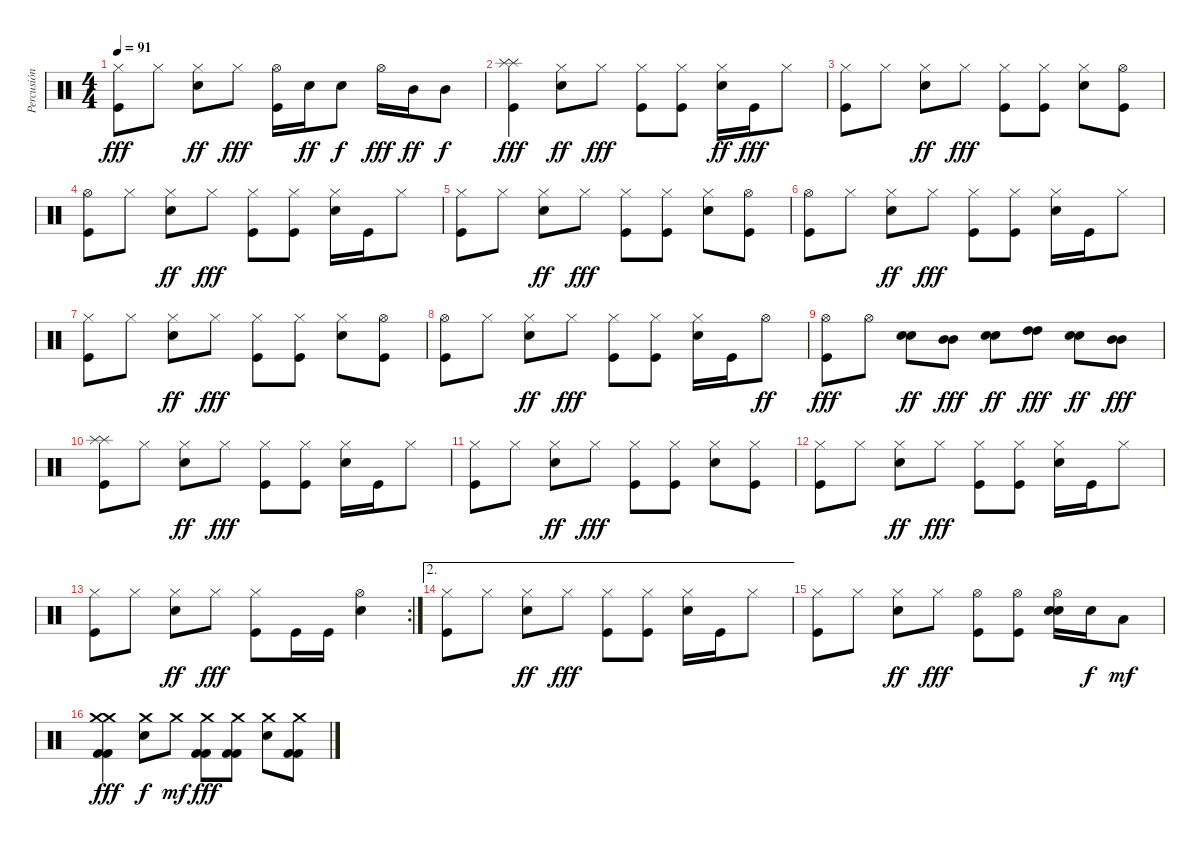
\track ("Percusión" "Percusión") {instrument percussion}
\staff {score}
\articulation defaults
\ts (4 4)
\tempo 91
\clef neutral
\ks c
("Hi-Hat (closed)" "Kick (hit)").8{dy fff} "Hi-Hat (closed)".8 ("Hi-Hat (closed)" "Electric Snare (hit)").8{dy ff} "Hi-Hat (closed)".8{dy fff} ("Hi-Hat (open)" "Kick (hit)").16 "Electric Snare (hit)".16{dy ff} "Electric Snare (hit)".8{dy f} "Hi-Hat (open)".16{dy fff} "Mid Tom (hit)".16{dy ff} "Mid Tom (hit)".8{dy f} |
("Splash (hit)" "Splash (hit)" "Kick (hit)").4{dy fff} ("Hi-Hat (closed)" "Electric Snare (hit)").8{dy ff} "Hi-Hat (closed)".8{dy fff} ("Hi-Hat (closed)" "Kick (hit)").8 ("Hi-Hat (closed)" "Kick (hit)").8 ("Hi-Hat (closed)" "Electric Snare (hit)").16{dy ff} "Kick (hit)".16{dy fff} "Hi-Hat (closed)".8 |
("Hi-Hat (closed)" "Kick (hit)").8 "Hi-Hat (closed)".8 ("Hi-Hat (closed)" "Electric Snare (hit)").8{dy ff} "Hi-Hat (closed)".8{dy fff} ("Hi-Hat (closed)" "Kick (hit)").8 ("Hi-Hat (closed)" "Kick (hit)").8 ("Hi-Hat (closed)" "Electric Snare (hit)").8 ("Hi-Hat (open)" "Kick (hit)").8 |
("Hi-Hat (open)" "Kick (hit)").8 "Hi-Hat (closed)".8 ("Hi-Hat (closed)" "Electric Snare (hit)").8{dy ff} "Hi-Hat (closed)".8{dy fff} ("Hi-Hat (closed)" "Kick (hit)").8 ("Hi-Hat (closed)" "Kick (hit)").8 ("Hi-Hat (closed)" "Electric Snare (hit)").16 "Kick (hit)".16 "Hi-Hat (closed)".8 |
("Hi-Hat (closed)" "Kick (hit)").8 "Hi-Hat (closed)".8 ("Hi-Hat (closed)" "Electric Snare (hit)").8{dy ff} "Hi-Hat (closed)".8{dy fff} ("Hi-Hat (closed)" "Kick (hit)").8 ("Hi-Hat (closed)" "Kick (hit)").8 ("Hi-Hat (closed)" "Electric Snare (hit)").8 ("Hi-Hat (open)" "Kick (hit)").8 |
("Hi-Hat (open)" "Kick (hit)").8 "Hi-Hat (closed)".8 ("Hi-Hat (closed)" "Electric Snare (hit)").8{dy ff} "Hi-Hat (closed)".8{dy fff} ("Hi-Hat (closed)" "Kick (hit)").8 ("Hi-Hat (closed)" "Kick (hit)").8 ("Hi-Hat (closed)" "Electric Snare (hit)").16 "Kick (hit)".16 "Hi-Hat (closed)".8 |
("Hi-Hat (closed)" "Kick (hit)").8 "Hi-Hat (closed)".8 ("Hi-Hat (closed)" "Electric Snare (hit)").8{dy ff} "Hi-Hat (closed)".8{dy fff} ("Hi-Hat (closed)" "Kick (hit)").8 ("Hi-Hat (closed)" "Kick (hit)").8 ("Hi-Hat (closed)" "Electric Snare (hit)").8 ("Hi-Hat (open)" "Kick (hit)").8 |
("Hi-Hat (open)" "Kick (hit)").8 "Hi-Hat (closed)".8 ("Hi-Hat (closed)" "Electric Snare (hit)").8{dy ff} "Hi-Hat (closed)".8{dy fff} ("Hi-Hat (closed)" "Kick (hit)").8 ("Hi-Hat (closed)" "Kick (hit)").8 ("Hi-Hat (closed)" "Electric Snare (hit)").16 "Kick (hit)".16 "Hi-Hat (open)".8{dy ff} |
("Hi-Hat (open)" "Kick (hit)").8{dy fff} "Hi-Hat (open)".8 ("Electric Snare (hit)" "Electric Snare (hit)").8{dy ff} ("Mid Tom (hit)" "Mid Tom (hit)").8{dy fff} ("Electric Snare (hit)" "Electric Snare (hit)").8{dy ff} ("High Tom (hit)" "High Tom (hit)").8{dy fff} ("Electric Snare (hit)" "Electric Snare (hit)").8{dy ff} ("Mid Tom (hit)" "Mid Tom (hit)").8{dy fff} |
("Splash (hit)" "Splash (hit)" "Kick (hit)").8 "Hi-Hat (closed)".8 ("Hi-Hat (closed)" "Electric Snare (hit)").8{dy ff} "Hi-Hat (closed)".8{dy fff} ("Hi-Hat (closed)" "Kick (hit)").8 ("Hi-Hat (closed)" "Kick (hit)").8 ("Hi-Hat (closed)" "Electric Snare (hit)").16 "Kick (hit)".16 "Hi-Hat (closed)".8 |
("Hi-Hat (closed)" "Kick (hit)").8 "Hi-Hat (closed)".8 ("Hi-Hat (closed)" "Electric Snare (hit)").8{dy ff} "Hi-Hat (closed)".8{dy fff} ("Hi-Hat (closed)" "Kick (hit)").8 ("Hi-Hat (closed)" "Kick (hit)").8 ("Hi-Hat (closed)" "Electric Snare (hit)").8 ("Hi-Hat (closed)" "Kick (hit)").8 |
("Hi-Hat (closed)" "Kick (hit)").8 "Hi-Hat (closed)".8 ("Hi-Hat (closed)" "Electric Snare (hit)").8{dy ff} "Hi-Hat (closed)".8{dy fff} ("Hi-Hat (closed)" "Kick (hit)").8 ("Hi-Hat (closed)" "Kick (hit)").8 ("Hi-Hat (closed)" "Electric Snare (hit)").16 "Kick (hit)".16 "Hi-Hat (closed)".8 |
\rc 2
("Hi-Hat (closed)" "Kick (hit)").8 "Hi-Hat (closed)".8 ("Hi-Hat (closed)" "Electric Snare (hit)").8{dy ff} "Hi-Hat (closed)".8{dy fff} ("Hi-Hat (closed)" "Kick (hit)").8 "Kick (hit)".16 "Kick (hit)".16 ("Hi-Hat (open)" "Electric Snare (hit)").4 |
\ae 2
("Hi-Hat (closed)" "Kick (hit)").8 "Hi-Hat (closed)".8 ("Hi-Hat (closed)" "Electric Snare (hit)").8{dy ff} "Hi-Hat (closed)".8{dy fff} ("Hi-Hat (closed)" "Kick (hit)").8 ("Hi-Hat (closed)" "Kick (hit)").8 ("Hi-Hat (closed)" "Electric Snare (hit)").16 "Kick (hit)".16 "Hi-Hat (closed)".8 |
("Hi-Hat (closed)" "Kick (hit)").8 "Hi-Hat (closed)".8 ("Hi-Hat (closed)" "Electric Snare (hit)").8{dy ff} "Hi-Hat (closed)".8{dy fff} ("Hi-Hat (open)" "Kick (hit)").8 ("Hi-Hat (open)" "Kick (hit)").8 ("Hi-Hat (open)" "Electric Snare (hit)" "Electric Snare (hit)").16 "Electric Snare (hit)".16{dy f} "Low Tom (hit)".8{dy mf} |
("Crash medium (hit)" "Crash medium (hit)" "Kick (hit) 2" "Kick (hit) 2").4{dy fff} ("Crash medium (hit)" "Electric Snare (hit)").8{dy f} "Crash medium (hit)".8{dy mf} ("Crash medium (hit)" "Kick (hit) 2" "Kick (hit) 2").8{dy fff} ("Crash medium (hit)" "Kick (hit) 2" "Kick (hit) 2").8 ("Crash medium (hit)" "Electric Snare (hit)").8 ("Crash medium (hit)" "Kick (hit) 2" "Kick (hit) 2").8
